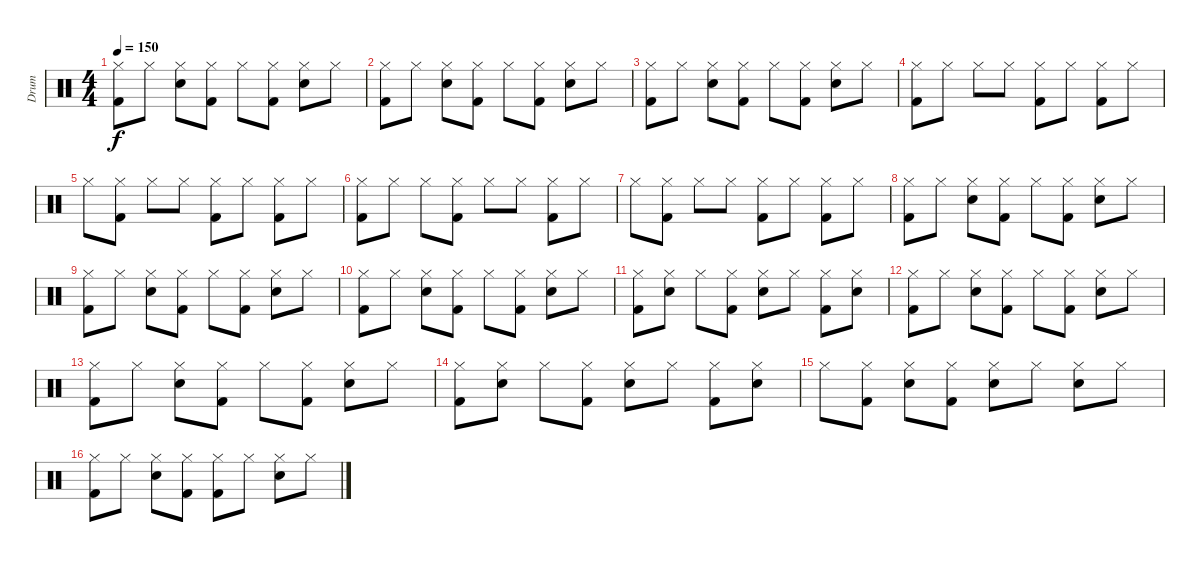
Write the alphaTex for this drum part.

\track ("Drum" "Drum") {instrument percussion}
\staff {score}
\articulation defaults
\ts (4 4)
\tempo 150
\clef neutral
\ks c
("Hi-Hat (closed)" "Kick (hit) 2").8{dy f} "Hi-Hat (closed)".8 ("Hi-Hat (closed)" "Snare (hit) 2").8 ("Hi-Hat (closed)" "Kick (hit) 2").8 "Hi-Hat (closed)".8 ("Kick (hit) 2" "Hi-Hat (closed)").8 ("Hi-Hat (closed)" "Snare (hit) 2").8 "Hi-Hat (closed)".8 |
("Hi-Hat (closed)" "Kick (hit) 2").8 "Hi-Hat (closed)".8 ("Hi-Hat (closed)" "Snare (hit) 2").8 ("Hi-Hat (closed)" "Kick (hit) 2").8 "Hi-Hat (closed)".8 ("Hi-Hat (closed)" "Kick (hit) 2").8 ("Hi-Hat (closed)" "Snare (hit) 2").8 "Hi-Hat (closed)".8 |
("Hi-Hat (closed)" "Kick (hit) 2").8 "Hi-Hat (closed)".8 ("Hi-Hat (closed)" "Snare (hit) 2").8 ("Hi-Hat (closed)" "Kick (hit) 2").8 "Hi-Hat (closed)".8 ("Kick (hit) 2" "Hi-Hat (closed)").8 ("Hi-Hat (closed)" "Snare (hit) 2").8 "Hi-Hat (closed)".8 |
("Hi-Hat (closed)" "Kick (hit) 2").8 "Hi-Hat (closed)".8 "Hi-Hat (closed)".8 "Hi-Hat (closed)".8 ("Kick (hit) 2" "Hi-Hat (closed)").8 "Hi-Hat (closed)".8 ("Hi-Hat (closed)" "Kick (hit) 2").8 "Hi-Hat (closed)".8 |
"Hi-Hat (closed)".8 ("Hi-Hat (closed)" "Kick (hit) 2").8 "Hi-Hat (closed)".8 "Hi-Hat (closed)".8 ("Hi-Hat (closed)" "Kick (hit) 2").8 "Hi-Hat (closed)".8 ("Hi-Hat (closed)" "Kick (hit) 2").8 "Hi-Hat (closed)".8 |
("Hi-Hat (closed)" "Kick (hit) 2").8 "Hi-Hat (closed)".8 "Hi-Hat (closed)".8 ("Hi-Hat (closed)" "Kick (hit) 2").8 "Hi-Hat (closed)".8 "Hi-Hat (closed)".8 ("Hi-Hat (closed)" "Kick (hit) 2").8 "Hi-Hat (closed)".8 |
"Hi-Hat (closed)".8 ("Hi-Hat (closed)" "Kick (hit) 2").8 "Hi-Hat (closed)".8 "Hi-Hat (closed)".8 ("Hi-Hat (closed)" "Kick (hit) 2").8 "Hi-Hat (closed)".8 ("Hi-Hat (closed)" "Kick (hit) 2").8 "Hi-Hat (closed)".8 |
("Hi-Hat (closed)" "Kick (hit) 2").8 "Hi-Hat (closed)".8 ("Hi-Hat (closed)" "Snare (hit) 2").8 ("Hi-Hat (closed)" "Kick (hit) 2").8 "Hi-Hat (closed)".8 ("Hi-Hat (closed)" "Kick (hit) 2").8 ("Hi-Hat (closed)" "Snare (hit) 2").8 "Hi-Hat (closed)".8 |
("Hi-Hat (closed)" "Kick (hit) 2").8 "Hi-Hat (closed)".8 ("Hi-Hat (closed)" "Snare (hit) 2").8 ("Hi-Hat (closed)" "Kick (hit) 2").8 "Hi-Hat (closed)".8 ("Hi-Hat (closed)" "Kick (hit) 2").8 ("Hi-Hat (closed)" "Snare (hit) 2").8 "Hi-Hat (closed)".8 |
("Hi-Hat (closed)" "Kick (hit) 2").8 "Hi-Hat (closed)".8 ("Snare (hit) 2" "Hi-Hat (closed)").8 ("Hi-Hat (closed)" "Kick (hit) 2").8 "Hi-Hat (closed)".8 ("Hi-Hat (closed)" "Kick (hit) 2").8 ("Hi-Hat (closed)" "Snare (hit) 2").8 "Hi-Hat (closed)".8 |
("Hi-Hat (closed)" "Kick (hit) 2").8 ("Hi-Hat (closed)" "Snare (hit) 2").8 "Hi-Hat (closed)".8 ("Kick (hit) 2" "Hi-Hat (closed)").8 ("Snare (hit) 2" "Hi-Hat (closed)").8 "Hi-Hat (closed)".8 ("Kick (hit) 2" "Hi-Hat (closed)").8 ("Hi-Hat (closed)" "Snare (hit) 2").8 |
("Hi-Hat (closed)" "Kick (hit) 2").8 "Hi-Hat (closed)".8 ("Hi-Hat (closed)" "Snare (hit) 2").8 ("Hi-Hat (closed)" "Kick (hit) 2").8 "Hi-Hat (closed)".8 ("Hi-Hat (closed)" "Kick (hit) 2").8 ("Hi-Hat (closed)" "Snare (hit) 2").8 "Hi-Hat (closed)".8 |
("Hi-Hat (closed)" "Kick (hit) 2").8 "Hi-Hat (closed)".8 ("Hi-Hat (closed)" "Snare (hit) 2").8 ("Hi-Hat (closed)" "Kick (hit) 2").8 "Hi-Hat (closed)".8 ("Hi-Hat (closed)" "Kick (hit) 2").8 ("Hi-Hat (closed)" "Snare (hit) 2").8 "Hi-Hat (closed)".8 |
("Hi-Hat (closed)" "Kick (hit) 2").8 ("Hi-Hat (closed)" "Snare (hit) 2").8 "Hi-Hat (closed)".8 ("Hi-Hat (closed)" "Kick (hit) 2").8 ("Hi-Hat (closed)" "Snare (hit) 2").8 "Hi-Hat (closed)".8 ("Hi-Hat (closed)" "Kick (hit) 2").8 ("Hi-Hat (closed)" "Snare (hit) 2").8 |
"Hi-Hat (closed)".8 ("Hi-Hat (closed)" "Kick (hit) 2").8 ("Hi-Hat (closed)" "Snare (hit) 2").8 ("Hi-Hat (closed)" "Kick (hit) 2").8 ("Hi-Hat (closed)" "Snare (hit) 2").8 "Hi-Hat (closed)".8 ("Hi-Hat (closed)" "Snare (hit) 2").8 "Hi-Hat (closed)".8 |
("Hi-Hat (closed)" "Kick (hit) 2").8 "Hi-Hat (closed)".8 ("Hi-Hat (closed)" "Snare (hit) 2").8 ("Hi-Hat (closed)" "Kick (hit) 2").8 ("Hi-Hat (closed)" "Kick (hit) 2").8 "Hi-Hat (closed)".8 ("Hi-Hat (closed)" "Snare (hit) 2").8 "Hi-Hat (closed)".8
